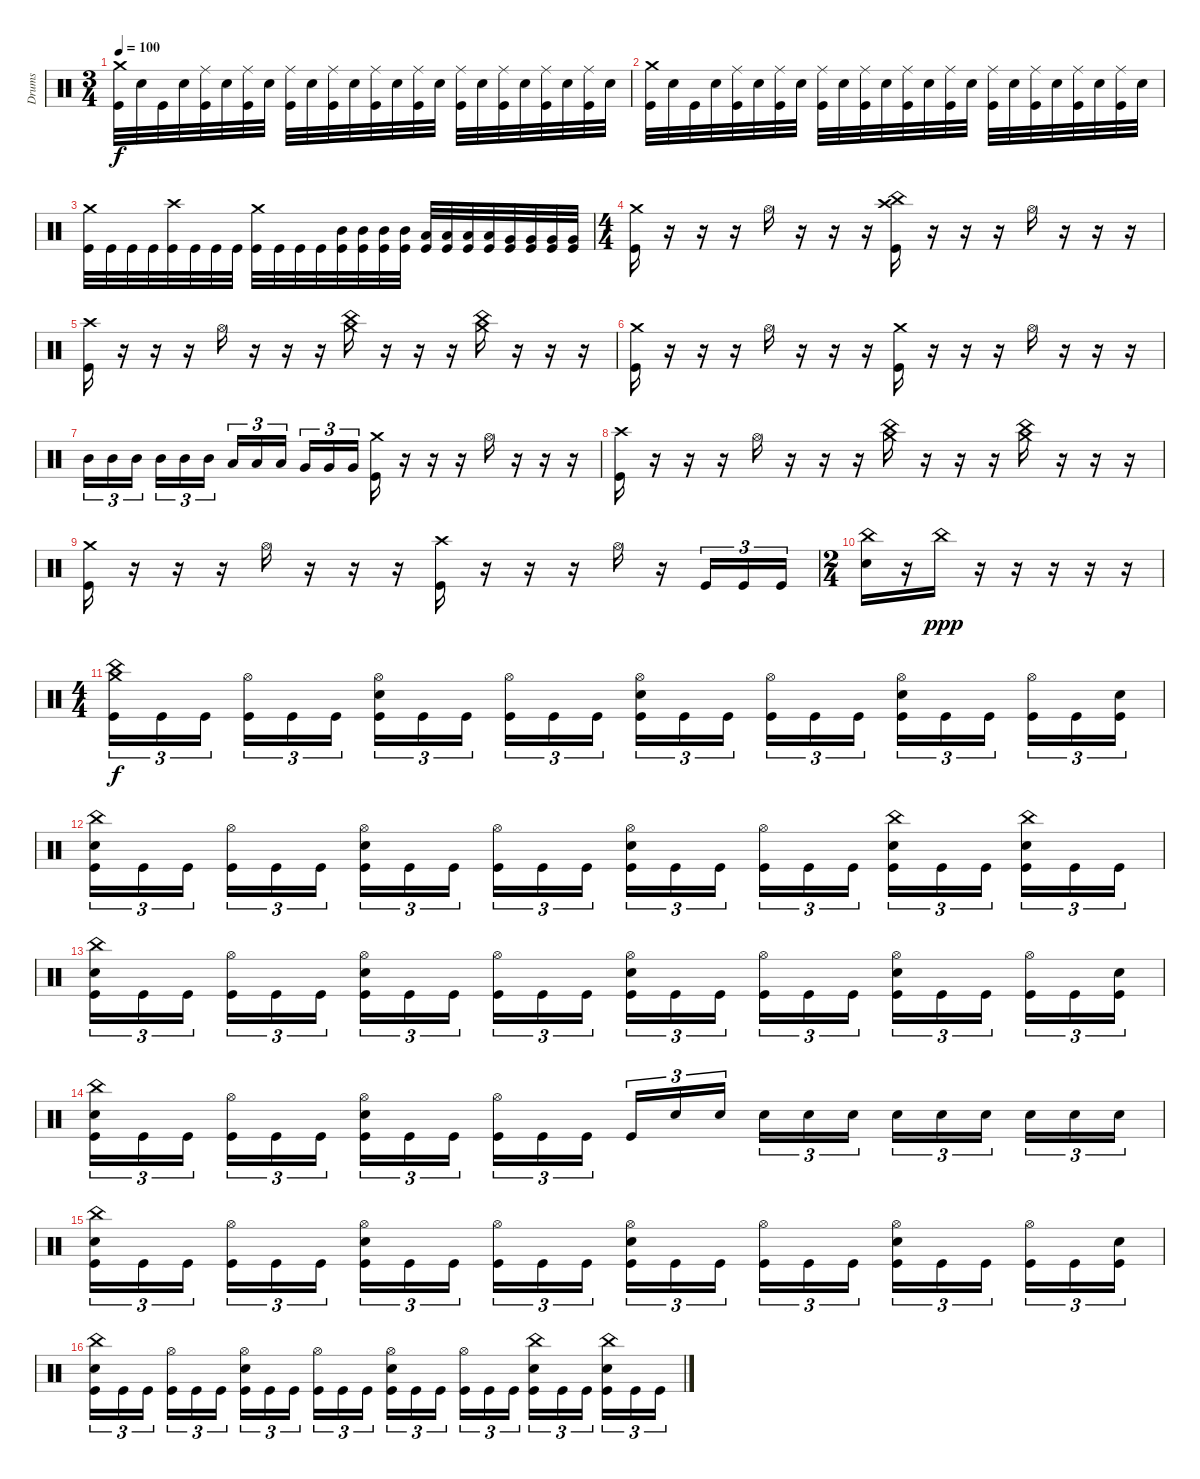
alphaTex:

\track ("Drums" "Drums") {instrument percussion}
\staff {score}
\articulation defaults
\ts (3 4)
\tempo 100
\clef neutral
\ks c
("Crash medium (hit)" "Kick (hit)").32{dy f} "Snare (hit) 2".32 "Kick (hit)".32 "Snare (hit) 2".32 ("Ride (middle)" "Kick (hit)").32 "Snare (hit) 2".32 ("Ride (middle)" "Kick (hit)").32 "Snare (hit) 2".32 ("Ride (middle)" "Kick (hit)").32 "Snare (hit) 2".32 ("Ride (middle)" "Kick (hit)").32 "Snare (hit) 2".32 ("Ride (middle)" "Kick (hit)").32 "Snare (hit) 2".32 ("Ride (middle)" "Kick (hit)").32 "Snare (hit) 2".32 ("Ride (middle)" "Kick (hit)").32 "Snare (hit) 2".32 ("Ride (middle)" "Kick (hit)").32 "Snare (hit) 2".32 ("Ride (middle)" "Kick (hit)").32 "Snare (hit) 2".32 ("Ride (middle)" "Kick (hit)").32 "Snare (hit) 2".32 |
("Crash medium (hit)" "Kick (hit)").32 "Snare (hit) 2".32 "Kick (hit)".32 "Snare (hit) 2".32 ("Ride (middle)" "Kick (hit)").32 "Snare (hit) 2".32 ("Ride (middle)" "Kick (hit)").32 "Snare (hit) 2".32 ("Ride (middle)" "Kick (hit)").32 "Snare (hit) 2".32 ("Ride (middle)" "Kick (hit)").32 "Snare (hit) 2".32 ("Ride (middle)" "Kick (hit)").32 "Snare (hit) 2".32 ("Ride (middle)" "Kick (hit)").32 "Snare (hit) 2".32 ("Ride (middle)" "Kick (hit)").32 "Snare (hit) 2".32 ("Ride (middle)" "Kick (hit)").32 "Snare (hit) 2".32 ("Ride (middle)" "Kick (hit)").32 "Snare (hit) 2".32 ("Ride (middle)" "Kick (hit)").32 "Snare (hit) 2".32 |
("Crash medium (hit)" "Kick (hit)").32 "Kick (hit)".32 "Kick (hit)".32 "Kick (hit)".32 ("Crash high (hit)" "Kick (hit)").32 "Kick (hit)".32 "Kick (hit)".32 "Kick (hit)".32 ("Crash medium (hit)" "Kick (hit)").32 "Kick (hit)".32 "Kick (hit)".32 "Kick (hit)".32 ("Mid Tom (hit)" "Kick (hit)").32 ("Mid Tom (hit)" "Kick (hit)").32 ("Mid Tom (hit)" "Kick (hit)").32 ("Mid Tom (hit)" "Kick (hit)").32 ("Low Tom (hit)" "Kick (hit)").32 ("Low Tom (hit)" "Kick (hit)").32 ("Low Tom (hit)" "Kick (hit)").32 ("Low Tom (hit)" "Kick (hit)").32 ("Very Low Tom (hit)" "Kick (hit)").32 ("Very Low Tom (hit)" "Kick (hit)").32 ("Very Low Tom (hit)" "Kick (hit)").32 ("Very Low Tom (hit)" "Kick (hit)").32 |
\ts (4 4)
("Crash medium (hit)" "Kick (hit)").16 r.16 r.16 r.16 "Hi-Hat (open)".16 r.16 r.16 r.16 ("China (hit)" "Crash high (hit)" "Kick (hit)").16 r.16 r.16 r.16 "Hi-Hat (open)".16 r.16 r.16 r.16 |
("Crash high (hit)" "Kick (hit)").16 r.16 r.16 r.16 "Hi-Hat (open)".16 r.16 r.16 r.16 ("China (hit)" "Crash medium (hit)").16 r.16 r.16 r.16 ("China (hit)" "Crash medium (hit)").16 r.16 r.16 r.16 |
("Crash medium (hit)" "Kick (hit)").16 r.16 r.16 r.16 "Hi-Hat (open)".16 r.16 r.16 r.16 ("Crash medium (hit)" "Kick (hit)").16 r.16 r.16 r.16 "Hi-Hat (open)".16 r.16 r.16 r.16 |
"Mid Tom (hit)".16{tu (3 2)} "Mid Tom (hit)".16{tu (3 2)} "Mid Tom (hit)".16{tu (3 2)} "Mid Tom (hit)".16{tu (3 2)} "Mid Tom (hit)".16{tu (3 2)} "Mid Tom (hit)".16{tu (3 2)} "Low Tom (hit)".16{tu (3 2)} "Low Tom (hit)".16{tu (3 2)} "Low Tom (hit)".16{tu (3 2)} "Very Low Tom (hit)".16{tu (3 2)} "Very Low Tom (hit)".16{tu (3 2)} "Very Low Tom (hit)".16{tu (3 2)} ("Crash medium (hit)" "Kick (hit)").16 r.16 r.16 r.16 "Hi-Hat (open)".16 r.16 r.16 r.16 |
("Crash high (hit)" "Kick (hit)").16 r.16 r.16 r.16 "Hi-Hat (open)".16 r.16 r.16 r.16 ("China (hit)" "Crash medium (hit)").16 r.16 r.16 r.16 ("China (hit)" "Crash medium (hit)").16 r.16 r.16 r.16 |
("Crash medium (hit)" "Kick (hit)").16 r.16 r.16 r.16 "Hi-Hat (open)".16 r.16 r.16 r.16 ("Crash high (hit)" "Kick (hit)").16 r.16 r.16 r.16 "Hi-Hat (open)".16 r.16 "Kick (hit)".16{tu (3 2)} "Kick (hit)".16{tu (3 2)} "Kick (hit)".16{tu (3 2)} |
\ts (2 4)
("China (hit)" "Snare (hit) 2").16 r.16 "China (hit)".16{dy ppp} r.16 r.16 r.16 r.16 r.16 |
\ts (4 4)
("China (hit)" "Crash medium (hit)" "Kick (hit)").16{tu (3 2) dy f} "Kick (hit)".16{tu (3 2)} "Kick (hit)".16{tu (3 2)} ("Hi-Hat (open)" "Kick (hit)").16{tu (3 2)} "Kick (hit)".16{tu (3 2)} "Kick (hit)".16{tu (3 2)} ("Hi-Hat (open)" "Snare (hit) 2" "Kick (hit)").16{tu (3 2)} "Kick (hit)".16{tu (3 2)} "Kick (hit)".16{tu (3 2)} ("Hi-Hat (open)" "Kick (hit)").16{tu (3 2)} "Kick (hit)".16{tu (3 2)} "Kick (hit)".16{tu (3 2)} ("Hi-Hat (open)" "Snare (hit) 2" "Kick (hit)").16{tu (3 2)} "Kick (hit)".16{tu (3 2)} "Kick (hit)".16{tu (3 2)} ("Hi-Hat (open)" "Kick (hit)").16{tu (3 2)} "Kick (hit)".16{tu (3 2)} "Kick (hit)".16{tu (3 2)} ("Hi-Hat (open)" "Snare (hit) 2" "Kick (hit)").16{tu (3 2)} "Kick (hit)".16{tu (3 2)} "Kick (hit)".16{tu (3 2)} ("Hi-Hat (open)" "Kick (hit)").16{tu (3 2)} "Kick (hit)".16{tu (3 2)} ("Snare (hit) 2" "Kick (hit)").16{tu (3 2)} |
("China (hit)" "Snare (hit) 2" "Kick (hit)").16{tu (3 2)} "Kick (hit)".16{tu (3 2)} "Kick (hit)".16{tu (3 2)} ("Hi-Hat (open)" "Kick (hit)").16{tu (3 2)} "Kick (hit)".16{tu (3 2)} "Kick (hit)".16{tu (3 2)} ("Hi-Hat (open)" "Snare (hit) 2" "Kick (hit)").16{tu (3 2)} "Kick (hit)".16{tu (3 2)} "Kick (hit)".16{tu (3 2)} ("Hi-Hat (open)" "Kick (hit)").16{tu (3 2)} "Kick (hit)".16{tu (3 2)} "Kick (hit)".16{tu (3 2)} ("Hi-Hat (open)" "Snare (hit) 2" "Kick (hit)").16{tu (3 2)} "Kick (hit)".16{tu (3 2)} "Kick (hit)".16{tu (3 2)} ("Hi-Hat (open)" "Kick (hit)").16{tu (3 2)} "Kick (hit)".16{tu (3 2)} "Kick (hit)".16{tu (3 2)} ("China (hit)" "Snare (hit) 2" "Kick (hit)").16{tu (3 2)} "Kick (hit)".16{tu (3 2)} "Kick (hit)".16{tu (3 2)} ("China (hit)" "Snare (hit) 2" "Kick (hit)").16{tu (3 2)} "Kick (hit)".16{tu (3 2)} "Kick (hit)".16{tu (3 2)} |
("China (hit)" "Snare (hit) 2" "Kick (hit)").16{tu (3 2)} "Kick (hit)".16{tu (3 2)} "Kick (hit)".16{tu (3 2)} ("Hi-Hat (open)" "Kick (hit)").16{tu (3 2)} "Kick (hit)".16{tu (3 2)} "Kick (hit)".16{tu (3 2)} ("Hi-Hat (open)" "Snare (hit) 2" "Kick (hit)").16{tu (3 2)} "Kick (hit)".16{tu (3 2)} "Kick (hit)".16{tu (3 2)} ("Hi-Hat (open)" "Kick (hit)").16{tu (3 2)} "Kick (hit)".16{tu (3 2)} "Kick (hit)".16{tu (3 2)} ("Hi-Hat (open)" "Snare (hit) 2" "Kick (hit)").16{tu (3 2)} "Kick (hit)".16{tu (3 2)} "Kick (hit)".16{tu (3 2)} ("Hi-Hat (open)" "Kick (hit)").16{tu (3 2)} "Kick (hit)".16{tu (3 2)} "Kick (hit)".16{tu (3 2)} ("Hi-Hat (open)" "Snare (hit) 2" "Kick (hit)").16{tu (3 2)} "Kick (hit)".16{tu (3 2)} "Kick (hit)".16{tu (3 2)} ("Hi-Hat (open)" "Kick (hit)").16{tu (3 2)} "Kick (hit)".16{tu (3 2)} ("Snare (hit) 2" "Kick (hit)").16{tu (3 2)} |
("China (hit)" "Snare (hit) 2" "Kick (hit)").16{tu (3 2)} "Kick (hit)".16{tu (3 2)} "Kick (hit)".16{tu (3 2)} ("Hi-Hat (open)" "Kick (hit)").16{tu (3 2)} "Kick (hit)".16{tu (3 2)} "Kick (hit)".16{tu (3 2)} ("Hi-Hat (open)" "Snare (hit) 2" "Kick (hit)").16{tu (3 2)} "Kick (hit)".16{tu (3 2)} "Kick (hit)".16{tu (3 2)} ("Hi-Hat (open)" "Kick (hit)").16{tu (3 2)} "Kick (hit)".16{tu (3 2)} "Kick (hit)".16{tu (3 2)} "Kick (hit)".16{tu (3 2)} "Snare (hit) 2".16{tu (3 2)} "Snare (hit) 2".16{tu (3 2)} "Snare (hit) 2".16{tu (3 2)} "Snare (hit) 2".16{tu (3 2)} "Snare (hit) 2".16{tu (3 2)} "Snare (hit) 2".16{tu (3 2)} "Snare (hit) 2".16{tu (3 2)} "Snare (hit) 2".16{tu (3 2)} "Snare (hit) 2".16{tu (3 2)} "Snare (hit) 2".16{tu (3 2)} "Snare (hit) 2".16{tu (3 2)} |
("China (hit)" "Snare (hit) 2" "Kick (hit)").16{tu (3 2)} "Kick (hit)".16{tu (3 2)} "Kick (hit)".16{tu (3 2)} ("Hi-Hat (open)" "Kick (hit)").16{tu (3 2)} "Kick (hit)".16{tu (3 2)} "Kick (hit)".16{tu (3 2)} ("Hi-Hat (open)" "Snare (hit) 2" "Kick (hit)").16{tu (3 2)} "Kick (hit)".16{tu (3 2)} "Kick (hit)".16{tu (3 2)} ("Hi-Hat (open)" "Kick (hit)").16{tu (3 2)} "Kick (hit)".16{tu (3 2)} "Kick (hit)".16{tu (3 2)} ("Hi-Hat (open)" "Snare (hit) 2" "Kick (hit)").16{tu (3 2)} "Kick (hit)".16{tu (3 2)} "Kick (hit)".16{tu (3 2)} ("Hi-Hat (open)" "Kick (hit)").16{tu (3 2)} "Kick (hit)".16{tu (3 2)} "Kick (hit)".16{tu (3 2)} ("Hi-Hat (open)" "Snare (hit) 2" "Kick (hit)").16{tu (3 2)} "Kick (hit)".16{tu (3 2)} "Kick (hit)".16{tu (3 2)} ("Hi-Hat (open)" "Kick (hit)").16{tu (3 2)} "Kick (hit)".16{tu (3 2)} ("Snare (hit) 2" "Kick (hit)").16{tu (3 2)} |
("China (hit)" "Snare (hit) 2" "Kick (hit)").16{tu (3 2)} "Kick (hit)".16{tu (3 2)} "Kick (hit)".16{tu (3 2)} ("Hi-Hat (open)" "Kick (hit)").16{tu (3 2)} "Kick (hit)".16{tu (3 2)} "Kick (hit)".16{tu (3 2)} ("Hi-Hat (open)" "Snare (hit) 2" "Kick (hit)").16{tu (3 2)} "Kick (hit)".16{tu (3 2)} "Kick (hit)".16{tu (3 2)} ("Hi-Hat (open)" "Kick (hit)").16{tu (3 2)} "Kick (hit)".16{tu (3 2)} "Kick (hit)".16{tu (3 2)} ("Hi-Hat (open)" "Snare (hit) 2" "Kick (hit)").16{tu (3 2)} "Kick (hit)".16{tu (3 2)} "Kick (hit)".16{tu (3 2)} ("Hi-Hat (open)" "Kick (hit)").16{tu (3 2)} "Kick (hit)".16{tu (3 2)} "Kick (hit)".16{tu (3 2)} ("China (hit)" "Snare (hit) 2" "Kick (hit)").16{tu (3 2)} "Kick (hit)".16{tu (3 2)} "Kick (hit)".16{tu (3 2)} ("China (hit)" "Snare (hit) 2" "Kick (hit)").16{tu (3 2)} "Kick (hit)".16{tu (3 2)} "Kick (hit)".16{tu (3 2)}
